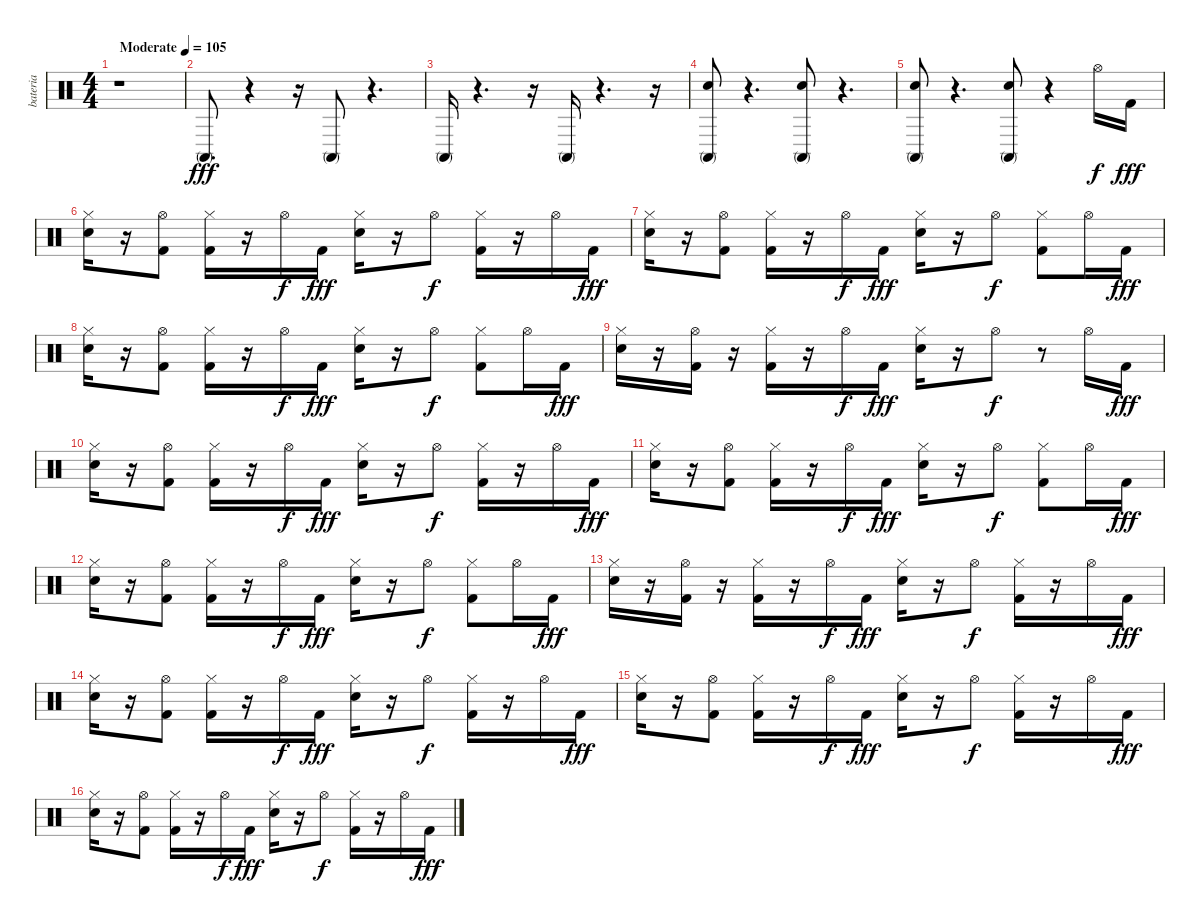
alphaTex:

\track ("bateria" "bateria") {instrument percussion}
\staff {score}
\articulation defaults
\ts (4 4)
\tempo (105 "Moderate")
\clef neutral
\ks c
r.1{dy fff} |
"Conga high (mute)".8{d} r.4 r.16 "Conga high (mute)".8 r.4{d} |
"Conga high (mute)".16 r.4{d} r.16 "Conga high (mute)".16 r.4{d} r.16 |
("Conga high (mute)" "Snare (hit) 2").8 r.4{d} ("Conga high (mute)" "Snare (hit) 2").8 r.4{d} |
("Conga high (mute)" "Snare (hit) 2").8 r.4{d} ("Conga high (mute)" "Snare (hit) 2").8 r.4 "Hi-Hat (open)".16{dy f} "Kick (hit) 2".16{dy fff} |
("Snare (hit) 2" "Hi-Hat (closed)").16 r.16 ("Kick (hit) 2" "Hi-Hat (open)").8 ("Kick (hit) 2" "Hi-Hat (closed)").16 r.16 "Hi-Hat (open)".16{dy f} "Kick (hit) 2".16{dy fff} ("Snare (hit) 2" "Hi-Hat (closed)").16 r.16 "Hi-Hat (open)".8{dy f} ("Hi-Hat (closed)" "Kick (hit) 2").16 r.16 "Hi-Hat (open)".16 "Kick (hit) 2".16{dy fff} |
("Snare (hit) 2" "Hi-Hat (closed)").16 r.16 ("Kick (hit) 2" "Hi-Hat (open)").8 ("Kick (hit) 2" "Hi-Hat (closed)").16 r.16 "Hi-Hat (open)".16{dy f} "Kick (hit) 2".16{dy fff} ("Snare (hit) 2" "Hi-Hat (closed)").16 r.16 "Hi-Hat (open)".8{dy f} ("Hi-Hat (closed)" "Kick (hit) 2").8 "Hi-Hat (open)".16 "Kick (hit) 2".16{dy fff} |
("Snare (hit) 2" "Hi-Hat (closed)").16 r.16 ("Kick (hit) 2" "Hi-Hat (open)").8 ("Kick (hit) 2" "Hi-Hat (closed)").16 r.16 "Hi-Hat (open)".16{dy f} "Kick (hit) 2".16{dy fff} ("Snare (hit) 2" "Hi-Hat (closed)").16 r.16 "Hi-Hat (open)".8{dy f} ("Hi-Hat (closed)" "Kick (hit) 2").8 "Hi-Hat (open)".16 "Kick (hit) 2".16{dy fff} |
("Snare (hit) 2" "Hi-Hat (closed)").16 r.16 ("Kick (hit) 2" "Hi-Hat (open)").16 r.16 ("Kick (hit) 2" "Hi-Hat (closed)").16 r.16 "Hi-Hat (open)".16{dy f} "Kick (hit) 2".16{dy fff} ("Snare (hit) 2" "Hi-Hat (closed)").16 r.16 "Hi-Hat (open)".8{dy f} r.8 "Hi-Hat (open)".16 "Kick (hit) 2".16{dy fff} |
("Snare (hit) 2" "Hi-Hat (closed)").16 r.16 ("Kick (hit) 2" "Hi-Hat (open)").8 ("Kick (hit) 2" "Hi-Hat (closed)").16 r.16 "Hi-Hat (open)".16{dy f} "Kick (hit) 2".16{dy fff} ("Snare (hit) 2" "Hi-Hat (closed)").16 r.16 "Hi-Hat (open)".8{dy f} ("Hi-Hat (closed)" "Kick (hit) 2").16 r.16 "Hi-Hat (open)".16 "Kick (hit) 2".16{dy fff} |
("Snare (hit) 2" "Hi-Hat (closed)").16 r.16 ("Kick (hit) 2" "Hi-Hat (open)").8 ("Kick (hit) 2" "Hi-Hat (closed)").16 r.16 "Hi-Hat (open)".16{dy f} "Kick (hit) 2".16{dy fff} ("Snare (hit) 2" "Hi-Hat (closed)").16 r.16 "Hi-Hat (open)".8{dy f} ("Hi-Hat (closed)" "Kick (hit) 2").8 "Hi-Hat (open)".16 "Kick (hit) 2".16{dy fff} |
("Snare (hit) 2" "Hi-Hat (closed)").16 r.16 ("Kick (hit) 2" "Hi-Hat (open)").8 ("Kick (hit) 2" "Hi-Hat (closed)").16 r.16 "Hi-Hat (open)".16{dy f} "Kick (hit) 2".16{dy fff} ("Snare (hit) 2" "Hi-Hat (closed)").16 r.16 "Hi-Hat (open)".8{dy f} ("Hi-Hat (closed)" "Kick (hit) 2").8 "Hi-Hat (open)".16 "Kick (hit) 2".16{dy fff} |
("Snare (hit) 2" "Hi-Hat (closed)").16 r.16 ("Kick (hit) 2" "Hi-Hat (open)").16 r.16 ("Kick (hit) 2" "Hi-Hat (closed)").16 r.16 "Hi-Hat (open)".16{dy f} "Kick (hit) 2".16{dy fff} ("Snare (hit) 2" "Hi-Hat (closed)").16 r.16 "Hi-Hat (open)".8{dy f} ("Hi-Hat (closed)" "Kick (hit) 2").16 r.16 "Hi-Hat (open)".16 "Kick (hit) 2".16{dy fff} |
("Snare (hit) 2" "Hi-Hat (closed)").16 r.16 ("Kick (hit) 2" "Hi-Hat (open)").8 ("Kick (hit) 2" "Hi-Hat (closed)").16 r.16 "Hi-Hat (open)".16{dy f} "Kick (hit) 2".16{dy fff} ("Snare (hit) 2" "Hi-Hat (closed)").16 r.16 "Hi-Hat (open)".8{dy f} ("Hi-Hat (closed)" "Kick (hit) 2").16 r.16 "Hi-Hat (open)".16 "Kick (hit) 2".16{dy fff} |
("Snare (hit) 2" "Hi-Hat (closed)").16 r.16 ("Kick (hit) 2" "Hi-Hat (open)").8 ("Kick (hit) 2" "Hi-Hat (closed)").16 r.16 "Hi-Hat (open)".16{dy f} "Kick (hit) 2".16{dy fff} ("Snare (hit) 2" "Hi-Hat (closed)").16 r.16 "Hi-Hat (open)".8{dy f} ("Hi-Hat (closed)" "Kick (hit) 2").16 r.16 "Hi-Hat (open)".16 "Kick (hit) 2".16{dy fff} |
("Snare (hit) 2" "Hi-Hat (closed)").16 r.16 ("Kick (hit) 2" "Hi-Hat (open)").8 ("Kick (hit) 2" "Hi-Hat (closed)").16 r.16 "Hi-Hat (open)".16{dy f} "Kick (hit) 2".16{dy fff} ("Snare (hit) 2" "Hi-Hat (closed)").16 r.16 "Hi-Hat (open)".8{dy f} ("Hi-Hat (closed)" "Kick (hit) 2").16 r.16 "Hi-Hat (open)".16 "Kick (hit) 2".16{dy fff}
